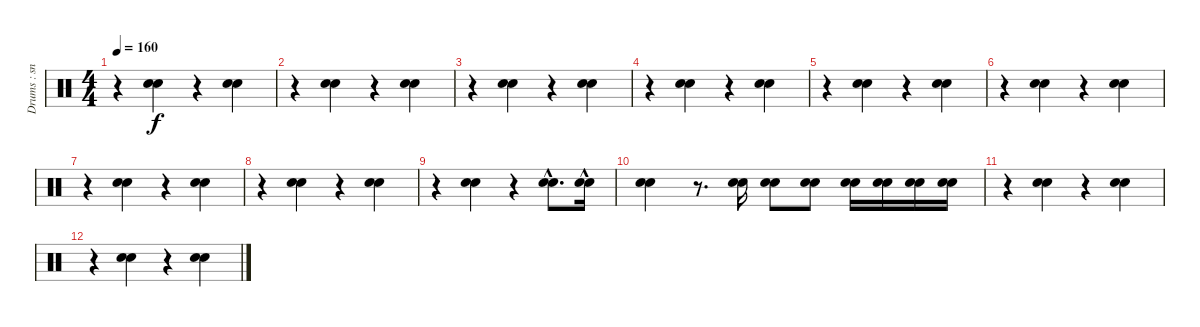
\track ("Drums : snare" "Drums : sn") {instrument percussion}
\staff {score}
\articulation defaults
\ts (4 4)
\tempo 160
\clef neutral
\ks c
r.4{dy f} ("Snare (hit) 2" "Electric Snare (hit)").4 r.4 ("Snare (hit) 2" "Electric Snare (hit)").4 |
r.4 ("Snare (hit) 2" "Electric Snare (hit)").4 r.4 ("Snare (hit) 2" "Electric Snare (hit)").4 |
r.4 ("Snare (hit) 2" "Electric Snare (hit)").4 r.4 ("Snare (hit) 2" "Electric Snare (hit)").4 |
r.4 ("Snare (hit) 2" "Electric Snare (hit)").4 r.4 ("Snare (hit) 2" "Electric Snare (hit)").4 |
r.4{volume 0} ("Snare (hit) 2" "Electric Snare (hit)").4 r.4 ("Snare (hit) 2" "Electric Snare (hit)").4 |
r.4 ("Snare (hit) 2" "Electric Snare (hit)").4 r.4 ("Snare (hit) 2" "Electric Snare (hit)").4 |
r.4 ("Snare (hit) 2" "Electric Snare (hit)").4 r.4 ("Snare (hit) 2" "Electric Snare (hit)").4 |
r.4 ("Snare (hit) 2" "Electric Snare (hit)").4 r.4 ("Snare (hit) 2" "Electric Snare (hit)").4 |
r.4 ("Snare (hit) 2" "Electric Snare (hit)").4 r.4 ("Snare (hit) 2"{hac} "Electric Snare (hit)"{hac}).8{d} ("Snare (hit) 2" "Electric Snare (hit)"{hac}).16 |
("Snare (hit) 2" "Electric Snare (hit)").4 r.8{d} ("Snare (hit) 2" "Electric Snare (hit)").16 ("Snare (hit) 2" "Electric Snare (hit)").8 ("Snare (hit) 2" "Electric Snare (hit)").8 ("Snare (hit) 2" "Electric Snare (hit)").16 ("Snare (hit) 2" "Electric Snare (hit)").16 ("Snare (hit) 2" "Electric Snare (hit)").16 ("Snare (hit) 2" "Electric Snare (hit)").16 |
r.4 ("Snare (hit) 2" "Electric Snare (hit)").4 r.4 ("Snare (hit) 2" "Electric Snare (hit)").4 |
r.4 ("Snare (hit) 2" "Electric Snare (hit)").4 r.4 ("Snare (hit) 2" "Electric Snare (hit)").4
